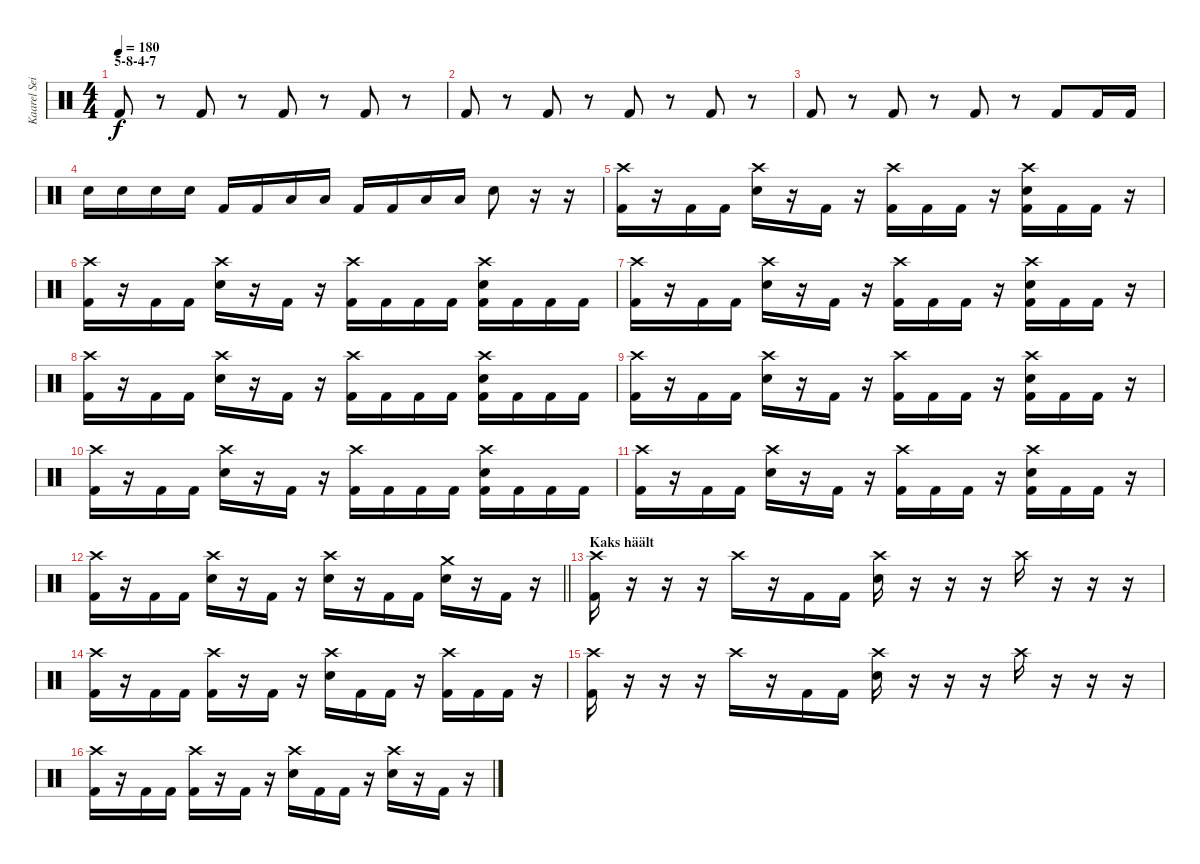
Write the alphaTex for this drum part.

\track ("Kaarel Sein" "Kaarel Sei") {instrument percussion}
\staff {score}
\articulation defaults
\ts (4 4)
\section ("" "5-8-4-7")
\tempo 180
\clef neutral
\ks c "Kick (hit) 2".8{dy f}
r.8 "Kick (hit) 2".8 r.8 "Kick (hit) 2".8 r.8 "Kick (hit) 2".8 r.8 |
"Kick (hit) 2".8 r.8 "Kick (hit) 2".8 r.8 "Kick (hit) 2".8 r.8 "Kick (hit) 2".8 r.8 |
"Kick (hit) 2".8 r.8 "Kick (hit) 2".8 r.8 "Kick (hit) 2".8 r.8 "Kick (hit) 2".8 "Kick (hit) 2".16 "Kick (hit) 2".16 |
"Electric Snare (hit)".16 "Electric Snare (hit)".16 "Electric Snare (hit)".16 "Electric Snare (hit)".16 "Kick (hit) 2".16 "Kick (hit) 2".16 "Low Tom (hit)".16 "Low Tom (hit)".16 "Kick (hit) 2".16 "Kick (hit) 2".16 "Low Floor Tom (hit)".16 "Low Floor Tom (hit)".16 "Electric Snare (hit)".8 r.16 r.16 |
("Crash high (hit)" "Kick (hit) 2").16 r.16 "Kick (hit) 2".16 "Kick (hit) 2".16 ("Crash high (hit)" "Electric Snare (hit)").16 r.16 "Kick (hit) 2".16 r.16 ("Crash high (hit)" "Kick (hit) 2").16 "Kick (hit) 2".16 "Kick (hit) 2".16 r.16 ("Crash high (hit)" "Electric Snare (hit)" "Kick (hit) 2").16 "Kick (hit) 2".16 "Kick (hit) 2".16 r.16 |
("Crash high (hit)" "Kick (hit) 2").16 r.16 "Kick (hit) 2".16 "Kick (hit) 2".16 ("Crash high (hit)" "Electric Snare (hit)").16 r.16 "Kick (hit) 2".16 r.16 ("Crash high (hit)" "Kick (hit) 2").16 "Kick (hit) 2".16 "Kick (hit) 2".16 "Kick (hit) 2".16 ("Crash high (hit)" "Electric Snare (hit)" "Kick (hit) 2").16 "Kick (hit) 2".16 "Kick (hit) 2".16 "Kick (hit) 2".16 |
("Crash high (hit)" "Kick (hit) 2").16 r.16 "Kick (hit) 2".16 "Kick (hit) 2".16 ("Crash high (hit)" "Electric Snare (hit)").16 r.16 "Kick (hit) 2".16 r.16 ("Crash high (hit)" "Kick (hit) 2").16 "Kick (hit) 2".16 "Kick (hit) 2".16 r.16 ("Crash high (hit)" "Electric Snare (hit)" "Kick (hit) 2").16 "Kick (hit) 2".16 "Kick (hit) 2".16 r.16 |
("Crash high (hit)" "Kick (hit) 2").16 r.16 "Kick (hit) 2".16 "Kick (hit) 2".16 ("Crash high (hit)" "Electric Snare (hit)").16 r.16 "Kick (hit) 2".16 r.16 ("Crash high (hit)" "Kick (hit) 2").16 "Kick (hit) 2".16 "Kick (hit) 2".16 "Kick (hit) 2".16 ("Crash high (hit)" "Electric Snare (hit)" "Kick (hit) 2").16 "Kick (hit) 2".16 "Kick (hit) 2".16 "Kick (hit) 2".16 |
("Crash high (hit)" "Kick (hit) 2").16 r.16 "Kick (hit) 2".16 "Kick (hit) 2".16 ("Crash high (hit)" "Electric Snare (hit)").16 r.16 "Kick (hit) 2".16 r.16 ("Crash high (hit)" "Kick (hit) 2").16 "Kick (hit) 2".16 "Kick (hit) 2".16 r.16 ("Crash high (hit)" "Electric Snare (hit)" "Kick (hit) 2").16 "Kick (hit) 2".16 "Kick (hit) 2".16 r.16 |
("Crash high (hit)" "Kick (hit) 2").16 r.16 "Kick (hit) 2".16 "Kick (hit) 2".16 ("Crash high (hit)" "Electric Snare (hit)").16 r.16 "Kick (hit) 2".16 r.16 ("Crash high (hit)" "Kick (hit) 2").16 "Kick (hit) 2".16 "Kick (hit) 2".16 "Kick (hit) 2".16 ("Crash high (hit)" "Electric Snare (hit)" "Kick (hit) 2").16 "Kick (hit) 2".16 "Kick (hit) 2".16 "Kick (hit) 2".16 |
("Crash high (hit)" "Kick (hit) 2").16 r.16 "Kick (hit) 2".16 "Kick (hit) 2".16 ("Crash high (hit)" "Electric Snare (hit)").16 r.16 "Kick (hit) 2".16 r.16 ("Crash high (hit)" "Kick (hit) 2").16 "Kick (hit) 2".16 "Kick (hit) 2".16 r.16 ("Crash high (hit)" "Electric Snare (hit)" "Kick (hit) 2").16 "Kick (hit) 2".16 "Kick (hit) 2".16 r.16 |
\barLineRight lightlight
("Crash high (hit)" "Kick (hit) 2").16 r.16 "Kick (hit) 2".16 "Kick (hit) 2".16 ("Crash high (hit)" "Electric Snare (hit)").16 r.16 "Kick (hit) 2".16 r.16 ("Crash high (hit)" "Electric Snare (hit)").16 r.16 "Kick (hit) 2".16 "Kick (hit) 2".16 ("Crash medium (hit)" "Electric Snare (hit)").16 r.16 "Kick (hit) 2".16 r.16 |
\section ("" "Kaks häält")
("Crash high (hit)" "Kick (hit) 2").16 r.16 r.16 r.16 "Crash high (hit)".16 r.16 "Kick (hit) 2".16 "Kick (hit) 2".16 ("Crash high (hit)" "Electric Snare (hit)").16 r.16 r.16 r.16 "Crash high (hit)".16 r.16 r.16 r.16 |
("Crash high (hit)" "Kick (hit) 2").16 r.16 "Kick (hit) 2".16 "Kick (hit) 2".16 ("Crash high (hit)" "Kick (hit) 2").16 r.16 "Kick (hit) 2".16 r.16 ("Crash high (hit)" "Electric Snare (hit)").16 "Kick (hit) 2".16 "Kick (hit) 2".16 r.16 ("Crash high (hit)" "Kick (hit) 2").16 "Kick (hit) 2".16 "Kick (hit) 2".16 r.16 |
("Crash high (hit)" "Kick (hit) 2").16 r.16 r.16 r.16 "Crash high (hit)".16 r.16 "Kick (hit) 2".16 "Kick (hit) 2".16 ("Crash high (hit)" "Electric Snare (hit)").16 r.16 r.16 r.16 "Crash high (hit)".16 r.16 r.16 r.16 |
("Crash high (hit)" "Kick (hit) 2").16 r.16 "Kick (hit) 2".16 "Kick (hit) 2".16 ("Crash high (hit)" "Kick (hit) 2").16 r.16 "Kick (hit) 2".16 r.16 ("Crash high (hit)" "Electric Snare (hit)").16 "Kick (hit) 2".16 "Kick (hit) 2".16 r.16 ("Crash high (hit)" "Electric Snare (hit)").16 r.16 "Kick (hit) 2".16 r.16
